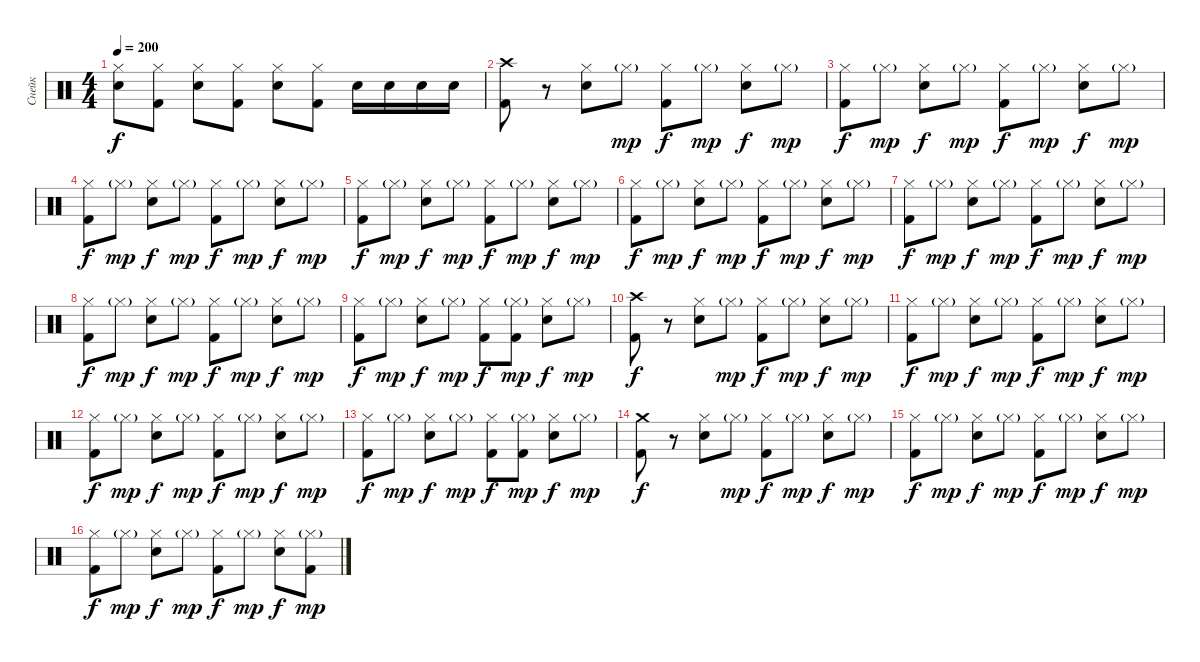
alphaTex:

\track ("Снейк" "Снейк") {instrument percussion}
\staff {score}
\articulation defaults
\ts (4 4)
\tempo 200
\clef neutral
\ks c
("Electric Snare (hit)" "Hi-Hat (closed)").8{dy f} ("Kick (hit) 2" "Hi-Hat (closed)").8 ("Electric Snare (hit)" "Hi-Hat (closed)").8 ("Kick (hit) 2" "Hi-Hat (closed)").8 ("Electric Snare (hit)" "Hi-Hat (closed)").8 ("Kick (hit) 2" "Hi-Hat (closed)").8 "Electric Snare (hit)".16 "Electric Snare (hit)".16 "Electric Snare (hit)".16 "Electric Snare (hit)".16 |
("Crash high (hit)" "Kick (hit) 2").8 r.8 ("Hi-Hat (closed)" "Electric Snare (hit)").8 "Hi-Hat (closed)"{g}.8{dy mp} ("Hi-Hat (closed)" "Kick (hit) 2").8{dy f} "Hi-Hat (closed)"{g}.8{dy mp} ("Hi-Hat (closed)" "Electric Snare (hit)").8{dy f} "Hi-Hat (closed)"{g}.8{dy mp} |
("Hi-Hat (closed)" "Kick (hit) 2").8{dy f} "Hi-Hat (closed)"{g}.8{dy mp} ("Hi-Hat (closed)" "Electric Snare (hit)").8{dy f} "Hi-Hat (closed)"{g}.8{dy mp} ("Hi-Hat (closed)" "Kick (hit) 2").8{dy f} "Hi-Hat (closed)"{g}.8{dy mp} ("Hi-Hat (closed)" "Electric Snare (hit)").8{dy f} "Hi-Hat (closed)"{g}.8{dy mp} |
("Hi-Hat (closed)" "Kick (hit) 2").8{dy f} "Hi-Hat (closed)"{g}.8{dy mp} ("Hi-Hat (closed)" "Electric Snare (hit)").8{dy f} "Hi-Hat (closed)"{g}.8{dy mp} ("Hi-Hat (closed)" "Kick (hit) 2").8{dy f} "Hi-Hat (closed)"{g}.8{dy mp} ("Hi-Hat (closed)" "Electric Snare (hit)").8{dy f} "Hi-Hat (closed)"{g}.8{dy mp} |
("Hi-Hat (closed)" "Kick (hit) 2").8{dy f} "Hi-Hat (closed)"{g}.8{dy mp} ("Hi-Hat (closed)" "Electric Snare (hit)").8{dy f} "Hi-Hat (closed)"{g}.8{dy mp} ("Hi-Hat (closed)" "Kick (hit) 2").8{dy f} "Hi-Hat (closed)"{g}.8{dy mp} ("Hi-Hat (closed)" "Electric Snare (hit)").8{dy f} "Hi-Hat (closed)"{g}.8{dy mp} |
("Hi-Hat (closed)" "Kick (hit) 2").8{dy f} "Hi-Hat (closed)"{g}.8{dy mp} ("Hi-Hat (closed)" "Electric Snare (hit)").8{dy f} "Hi-Hat (closed)"{g}.8{dy mp} ("Hi-Hat (closed)" "Kick (hit) 2").8{dy f} "Hi-Hat (closed)"{g}.8{dy mp} ("Hi-Hat (closed)" "Electric Snare (hit)").8{dy f} "Hi-Hat (closed)"{g}.8{dy mp} |
("Hi-Hat (closed)" "Kick (hit) 2").8{dy f} "Hi-Hat (closed)"{g}.8{dy mp} ("Hi-Hat (closed)" "Electric Snare (hit)").8{dy f} "Hi-Hat (closed)"{g}.8{dy mp} ("Hi-Hat (closed)" "Kick (hit) 2").8{dy f} "Hi-Hat (closed)"{g}.8{dy mp} ("Hi-Hat (closed)" "Electric Snare (hit)").8{dy f} "Hi-Hat (closed)"{g}.8{dy mp} |
("Hi-Hat (closed)" "Kick (hit) 2").8{dy f} "Hi-Hat (closed)"{g}.8{dy mp} ("Hi-Hat (closed)" "Electric Snare (hit)").8{dy f} "Hi-Hat (closed)"{g}.8{dy mp} ("Hi-Hat (closed)" "Kick (hit) 2").8{dy f} "Hi-Hat (closed)"{g}.8{dy mp} ("Hi-Hat (closed)" "Electric Snare (hit)").8{dy f} "Hi-Hat (closed)"{g}.8{dy mp} |
("Hi-Hat (closed)" "Kick (hit) 2").8{dy f} "Hi-Hat (closed)"{g}.8{dy mp} ("Hi-Hat (closed)" "Electric Snare (hit)").8{dy f} "Hi-Hat (closed)"{g}.8{dy mp} ("Hi-Hat (closed)" "Kick (hit) 2").8{dy f} ("Hi-Hat (closed)"{g} "Kick (hit) 2").8{dy mp} ("Hi-Hat (closed)" "Electric Snare (hit)").8{dy f} "Hi-Hat (closed)"{g}.8{dy mp} |
("Crash high (hit)" "Kick (hit) 2").8{dy f} r.8 ("Hi-Hat (closed)" "Electric Snare (hit)").8 "Hi-Hat (closed)"{g}.8{dy mp} ("Hi-Hat (closed)" "Kick (hit) 2").8{dy f} "Hi-Hat (closed)"{g}.8{dy mp} ("Hi-Hat (closed)" "Electric Snare (hit)").8{dy f} "Hi-Hat (closed)"{g}.8{dy mp} |
("Hi-Hat (closed)" "Kick (hit) 2").8{dy f} "Hi-Hat (closed)"{g}.8{dy mp} ("Hi-Hat (closed)" "Electric Snare (hit)").8{dy f} "Hi-Hat (closed)"{g}.8{dy mp} ("Hi-Hat (closed)" "Kick (hit) 2").8{dy f} "Hi-Hat (closed)"{g}.8{dy mp} ("Hi-Hat (closed)" "Electric Snare (hit)").8{dy f} "Hi-Hat (closed)"{g}.8{dy mp} |
("Hi-Hat (closed)" "Kick (hit) 2").8{dy f} "Hi-Hat (closed)"{g}.8{dy mp} ("Hi-Hat (closed)" "Electric Snare (hit)").8{dy f} "Hi-Hat (closed)"{g}.8{dy mp} ("Hi-Hat (closed)" "Kick (hit) 2").8{dy f} "Hi-Hat (closed)"{g}.8{dy mp} ("Hi-Hat (closed)" "Electric Snare (hit)").8{dy f} "Hi-Hat (closed)"{g}.8{dy mp} |
("Hi-Hat (closed)" "Kick (hit) 2").8{dy f} "Hi-Hat (closed)"{g}.8{dy mp} ("Hi-Hat (closed)" "Electric Snare (hit)").8{dy f} "Hi-Hat (closed)"{g}.8{dy mp} ("Hi-Hat (closed)" "Kick (hit) 2").8{dy f} ("Hi-Hat (closed)"{g} "Kick (hit) 2").8{dy mp} ("Hi-Hat (closed)" "Electric Snare (hit)").8{dy f} "Hi-Hat (closed)"{g}.8{dy mp} |
("Crash medium (hit)" "Kick (hit) 2").8{dy f} r.8 ("Hi-Hat (closed)" "Electric Snare (hit)").8 "Hi-Hat (closed)"{g}.8{dy mp} ("Hi-Hat (closed)" "Kick (hit) 2").8{dy f} "Hi-Hat (closed)"{g}.8{dy mp} ("Hi-Hat (closed)" "Electric Snare (hit)").8{dy f} "Hi-Hat (closed)"{g}.8{dy mp} |
("Hi-Hat (closed)" "Kick (hit) 2").8{dy f} "Hi-Hat (closed)"{g}.8{dy mp} ("Hi-Hat (closed)" "Electric Snare (hit)").8{dy f} "Hi-Hat (closed)"{g}.8{dy mp} ("Hi-Hat (closed)" "Kick (hit) 2").8{dy f} "Hi-Hat (closed)"{g}.8{dy mp} ("Hi-Hat (closed)" "Electric Snare (hit)").8{dy f} "Hi-Hat (closed)"{g}.8{dy mp} |
("Hi-Hat (closed)" "Kick (hit) 2").8{dy f} "Hi-Hat (closed)"{g}.8{dy mp} ("Hi-Hat (closed)" "Electric Snare (hit)").8{dy f} "Hi-Hat (closed)"{g}.8{dy mp} ("Hi-Hat (closed)" "Kick (hit) 2").8{dy f} "Hi-Hat (closed)"{g}.8{dy mp} ("Hi-Hat (closed)" "Electric Snare (hit)").8{dy f} ("Hi-Hat (closed)"{g} "Kick (hit) 2").8{dy mp}
